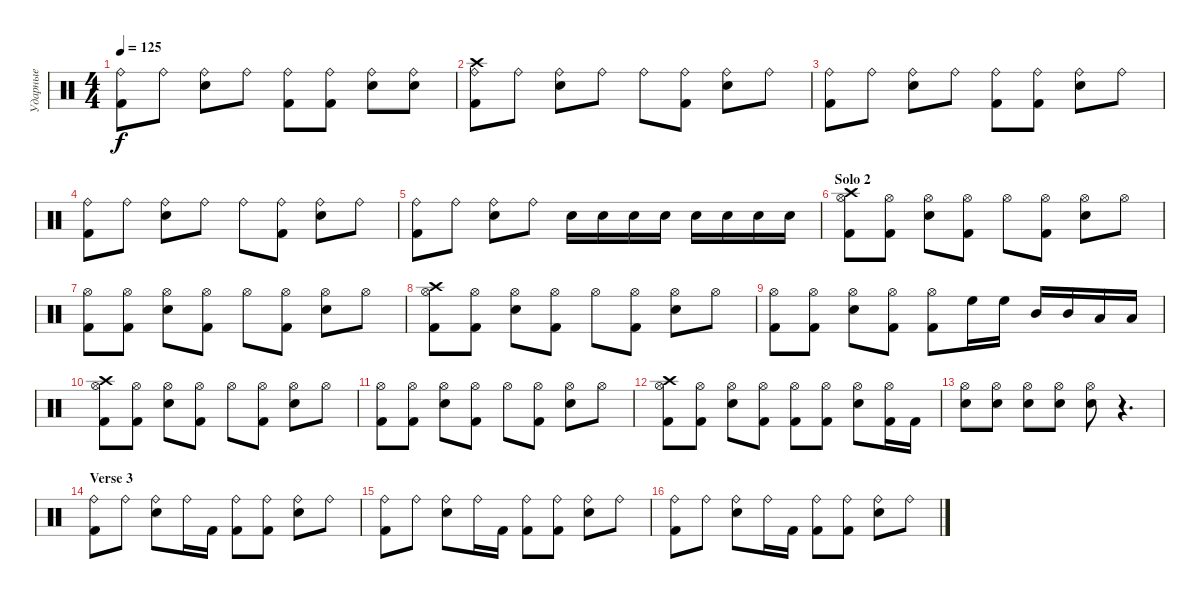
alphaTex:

\track ("Ударные" "Ударные") {instrument percussion}
\staff {score}
\articulation defaults
\ts (4 4)
\tempo 125
\clef neutral
\ks c
("Ride (bell)" "Kick (hit) 2").8{dy f} "Ride (bell)".8 ("Ride (bell)" "Snare (hit) 2").8 "Ride (bell)".8 ("Ride (bell)" "Kick (hit) 2").8 ("Ride (bell)" "Kick (hit) 2").8 ("Ride (bell)" "Snare (hit) 2").8 ("Ride (bell)" "Snare (hit) 2").8 |
("Ride (bell)" "Crash high (hit)" "Kick (hit) 2").8 "Ride (bell)".8 ("Ride (bell)" "Snare (hit) 2").8 "Ride (bell)".8 "Ride (bell)".8 ("Ride (bell)" "Kick (hit) 2").8 ("Ride (bell)" "Snare (hit) 2").8 "Ride (bell)".8 |
("Ride (bell)" "Kick (hit) 2").8 "Ride (bell)".8 ("Ride (bell)" "Snare (hit) 2").8 "Ride (bell)".8 ("Ride (bell)" "Kick (hit) 2").8 ("Ride (bell)" "Kick (hit) 2").8 ("Ride (bell)" "Snare (hit) 2").8 "Ride (bell)".8 |
("Ride (bell)" "Kick (hit) 2").8 "Ride (bell)".8 ("Ride (bell)" "Snare (hit) 2").8 "Ride (bell)".8 "Ride (bell)".8 ("Ride (bell)" "Kick (hit) 2").8 ("Ride (bell)" "Snare (hit) 2").8 "Ride (bell)".8 |
("Ride (bell)" "Kick (hit) 2").8 "Ride (bell)".8 ("Ride (bell)" "Snare (hit) 2").8 "Ride (bell)".8 "Snare (hit) 2".16 "Snare (hit) 2".16 "Snare (hit) 2".16 "Snare (hit) 2".16 "Snare (hit) 2".16 "Snare (hit) 2".16 "Snare (hit) 2".16 "Snare (hit) 2".16 |
\section ("" "Solo 2")
("Hi-Hat (open)" "Crash high (hit)" "Kick (hit) 2").8 ("Hi-Hat (open)" "Kick (hit) 2").8 ("Hi-Hat (open)" "Snare (hit) 2").8 ("Hi-Hat (open)" "Kick (hit) 2").8 "Hi-Hat (open)".8 ("Hi-Hat (open)" "Kick (hit) 2").8 ("Hi-Hat (open)" "Snare (hit) 2").8 "Hi-Hat (open)".8 |
("Hi-Hat (open)" "Kick (hit) 2").8 ("Hi-Hat (open)" "Kick (hit) 2").8 ("Hi-Hat (open)" "Snare (hit) 2").8 ("Hi-Hat (open)" "Kick (hit) 2").8 "Hi-Hat (open)".8 ("Hi-Hat (open)" "Kick (hit) 2").8 ("Hi-Hat (open)" "Snare (hit) 2").8 "Hi-Hat (open)".8 |
("Hi-Hat (open)" "Crash high (hit)" "Kick (hit) 2").8 ("Hi-Hat (open)" "Kick (hit) 2").8 ("Hi-Hat (open)" "Snare (hit) 2").8 ("Hi-Hat (open)" "Kick (hit) 2").8 "Hi-Hat (open)".8 ("Hi-Hat (open)" "Kick (hit) 2").8 ("Hi-Hat (open)" "Snare (hit) 2").8 "Hi-Hat (open)".8 |
("Hi-Hat (open)" "Kick (hit) 2").8 ("Hi-Hat (open)" "Kick (hit) 2").8 ("Hi-Hat (open)" "Snare (hit) 2").8 ("Hi-Hat (open)" "Kick (hit) 2").8 ("Hi-Hat (open)" "Kick (hit) 2").8 "High Floor Tom (hit)".16 "High Floor Tom (hit)".16 "Mid Tom (hit)".16 "Mid Tom (hit)".16 "Low Tom (hit)".16 "Low Tom (hit)".16 |
("Hi-Hat (open)" "Crash high (hit)" "Kick (hit) 2").8 ("Hi-Hat (open)" "Kick (hit) 2").8 ("Hi-Hat (open)" "Snare (hit) 2").8 ("Hi-Hat (open)" "Kick (hit) 2").8 "Hi-Hat (open)".8 ("Hi-Hat (open)" "Kick (hit) 2").8 ("Hi-Hat (open)" "Snare (hit) 2").8 "Hi-Hat (open)".8 |
("Hi-Hat (open)" "Kick (hit) 2").8 ("Hi-Hat (open)" "Kick (hit) 2").8 ("Hi-Hat (open)" "Snare (hit) 2").8 ("Hi-Hat (open)" "Kick (hit) 2").8 "Hi-Hat (open)".8 ("Hi-Hat (open)" "Kick (hit) 2").8 ("Hi-Hat (open)" "Snare (hit) 2").8 "Hi-Hat (open)".8 |
("Hi-Hat (open)" "Crash high (hit)" "Kick (hit) 2").8 ("Hi-Hat (open)" "Kick (hit) 2").8 ("Hi-Hat (open)" "Snare (hit) 2").8 ("Hi-Hat (open)" "Kick (hit) 2").8 ("Hi-Hat (open)" "Kick (hit) 2").8 ("Hi-Hat (open)" "Kick (hit) 2").8 ("Hi-Hat (open)" "Snare (hit) 2").8 ("Hi-Hat (open)" "Kick (hit) 2").16 "Kick (hit) 2".16 |
("Hi-Hat (open)" "Snare (hit) 2").8 ("Hi-Hat (open)" "Snare (hit) 2").8 ("Hi-Hat (open)" "Snare (hit) 2").8 ("Hi-Hat (open)" "Snare (hit) 2").8 ("Hi-Hat (open)" "Snare (hit) 2").8 r.4{d} |
\section ("" "Verse 3")
("Ride (bell)" "Kick (hit) 2").8 "Ride (bell)".8 ("Ride (bell)" "Snare (hit) 2").8 "Ride (bell)".16 "Kick (hit) 2".16 ("Ride (bell)" "Kick (hit) 2").8 ("Ride (bell)" "Kick (hit) 2").8 ("Ride (bell)" "Snare (hit) 2").8 "Ride (bell)".8 |
("Ride (bell)" "Kick (hit) 2").8 "Ride (bell)".8 ("Ride (bell)" "Snare (hit) 2").8 "Ride (bell)".16 "Kick (hit) 2".16 ("Ride (bell)" "Kick (hit) 2").8 ("Ride (bell)" "Kick (hit) 2").8 ("Ride (bell)" "Snare (hit) 2").8 "Ride (bell)".8 |
("Ride (bell)" "Kick (hit) 2").8 "Ride (bell)".8 ("Ride (bell)" "Snare (hit) 2").8 "Ride (bell)".16 "Kick (hit) 2".16 ("Ride (bell)" "Kick (hit) 2").8 ("Ride (bell)" "Kick (hit) 2").8 ("Ride (bell)" "Snare (hit) 2").8 "Ride (bell)".8
